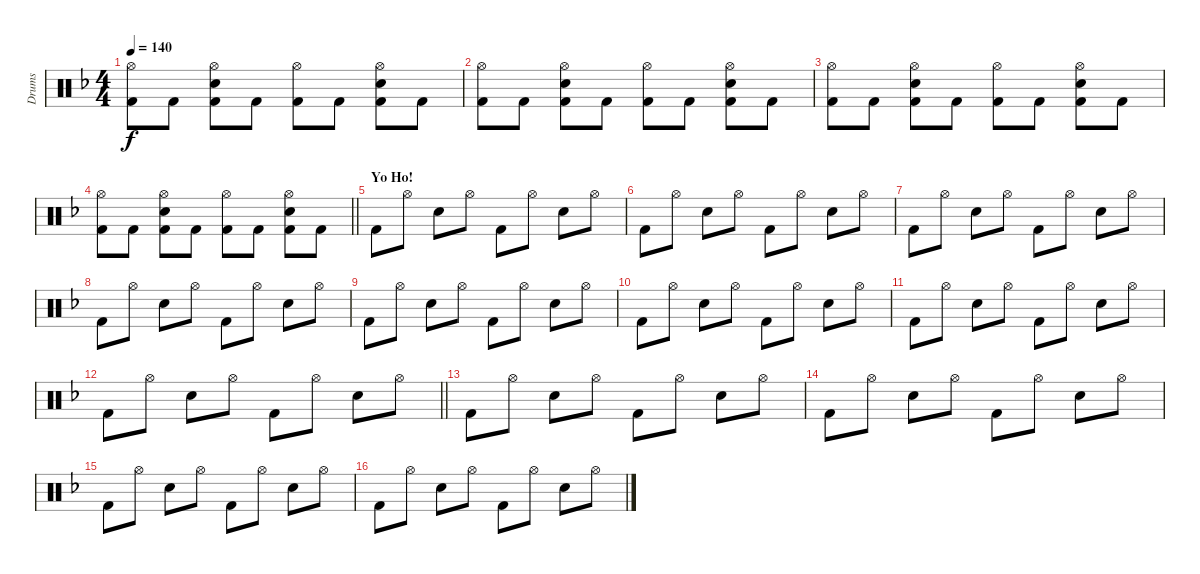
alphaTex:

\track ("Drums" "Drums") {instrument percussion}
\staff {score}
\articulation defaults
\ts (4 4)
\tempo 140
\clef neutral
\ks dminor
("Hi-Hat (open)" "Kick (hit) 2").8{dy f} "Kick (hit) 2".8 ("Hi-Hat (open)" "Snare (hit) 2" "Kick (hit) 2").8 "Kick (hit) 2".8 ("Hi-Hat (open)" "Kick (hit) 2").8 "Kick (hit) 2".8 ("Hi-Hat (open)" "Snare (hit) 2" "Kick (hit) 2").8 "Kick (hit) 2".8 |
("Hi-Hat (open)" "Kick (hit) 2").8 "Kick (hit) 2".8 ("Hi-Hat (open)" "Snare (hit) 2" "Kick (hit) 2").8 "Kick (hit) 2".8 ("Hi-Hat (open)" "Kick (hit) 2").8 "Kick (hit) 2".8 ("Hi-Hat (open)" "Snare (hit) 2" "Kick (hit) 2").8 "Kick (hit) 2".8 |
("Hi-Hat (open)" "Kick (hit) 2").8 "Kick (hit) 2".8 ("Hi-Hat (open)" "Snare (hit) 2" "Kick (hit) 2").8 "Kick (hit) 2".8 ("Hi-Hat (open)" "Kick (hit) 2").8 "Kick (hit) 2".8 ("Hi-Hat (open)" "Snare (hit) 2" "Kick (hit) 2").8 "Kick (hit) 2".8 |
\barLineRight lightlight
("Hi-Hat (open)" "Kick (hit) 2").8 "Kick (hit) 2".8 ("Hi-Hat (open)" "Snare (hit) 2" "Kick (hit) 2").8 "Kick (hit) 2".8 ("Hi-Hat (open)" "Kick (hit) 2").8 "Kick (hit) 2".8 ("Hi-Hat (open)" "Snare (hit) 2" "Kick (hit) 2").8 "Kick (hit) 2".8 |
\section ("" "Yo Ho!")
"Kick (hit) 2".8 "Hi-Hat (open)".8 "Snare (hit) 2".8 "Hi-Hat (open)".8 "Kick (hit) 2".8 "Hi-Hat (open)".8 "Snare (hit) 2".8 "Hi-Hat (open)".8 |
"Kick (hit) 2".8 "Hi-Hat (open)".8 "Snare (hit) 2".8 "Hi-Hat (open)".8 "Kick (hit) 2".8 "Hi-Hat (open)".8 "Snare (hit) 2".8 "Hi-Hat (open)".8 |
"Kick (hit) 2".8 "Hi-Hat (open)".8 "Snare (hit) 2".8 "Hi-Hat (open)".8 "Kick (hit) 2".8 "Hi-Hat (open)".8 "Snare (hit) 2".8 "Hi-Hat (open)".8 |
"Kick (hit) 2".8 "Hi-Hat (open)".8 "Snare (hit) 2".8 "Hi-Hat (open)".8 "Kick (hit) 2".8 "Hi-Hat (open)".8 "Snare (hit) 2".8 "Hi-Hat (open)".8 |
"Kick (hit) 2".8 "Hi-Hat (open)".8 "Snare (hit) 2".8 "Hi-Hat (open)".8 "Kick (hit) 2".8 "Hi-Hat (open)".8 "Snare (hit) 2".8 "Hi-Hat (open)".8 |
"Kick (hit) 2".8 "Hi-Hat (open)".8 "Snare (hit) 2".8 "Hi-Hat (open)".8 "Kick (hit) 2".8 "Hi-Hat (open)".8 "Snare (hit) 2".8 "Hi-Hat (open)".8 |
"Kick (hit) 2".8 "Hi-Hat (open)".8 "Snare (hit) 2".8 "Hi-Hat (open)".8 "Kick (hit) 2".8 "Hi-Hat (open)".8 "Snare (hit) 2".8 "Hi-Hat (open)".8 |
\barLineRight lightlight "Kick (hit) 2".8 "Hi-Hat (open)".8 "Snare (hit) 2".8 "Hi-Hat (open)".8 "Kick (hit) 2".8 "Hi-Hat (open)".8 "Snare (hit) 2".8 "Hi-Hat (open)".8
|
"Kick (hit) 2".8 "Hi-Hat (open)".8 "Snare (hit) 2".8 "Hi-Hat (open)".8 "Kick (hit) 2".8 "Hi-Hat (open)".8 "Snare (hit) 2".8 "Hi-Hat (open)".8 |
"Kick (hit) 2".8 "Hi-Hat (open)".8 "Snare (hit) 2".8 "Hi-Hat (open)".8 "Kick (hit) 2".8 "Hi-Hat (open)".8 "Snare (hit) 2".8 "Hi-Hat (open)".8 |
"Kick (hit) 2".8 "Hi-Hat (open)".8 "Snare (hit) 2".8 "Hi-Hat (open)".8 "Kick (hit) 2".8 "Hi-Hat (open)".8 "Snare (hit) 2".8 "Hi-Hat (open)".8 |
"Kick (hit) 2".8 "Hi-Hat (open)".8 "Snare (hit) 2".8 "Hi-Hat (open)".8 "Kick (hit) 2".8 "Hi-Hat (open)".8 "Snare (hit) 2".8 "Hi-Hat (open)".8
